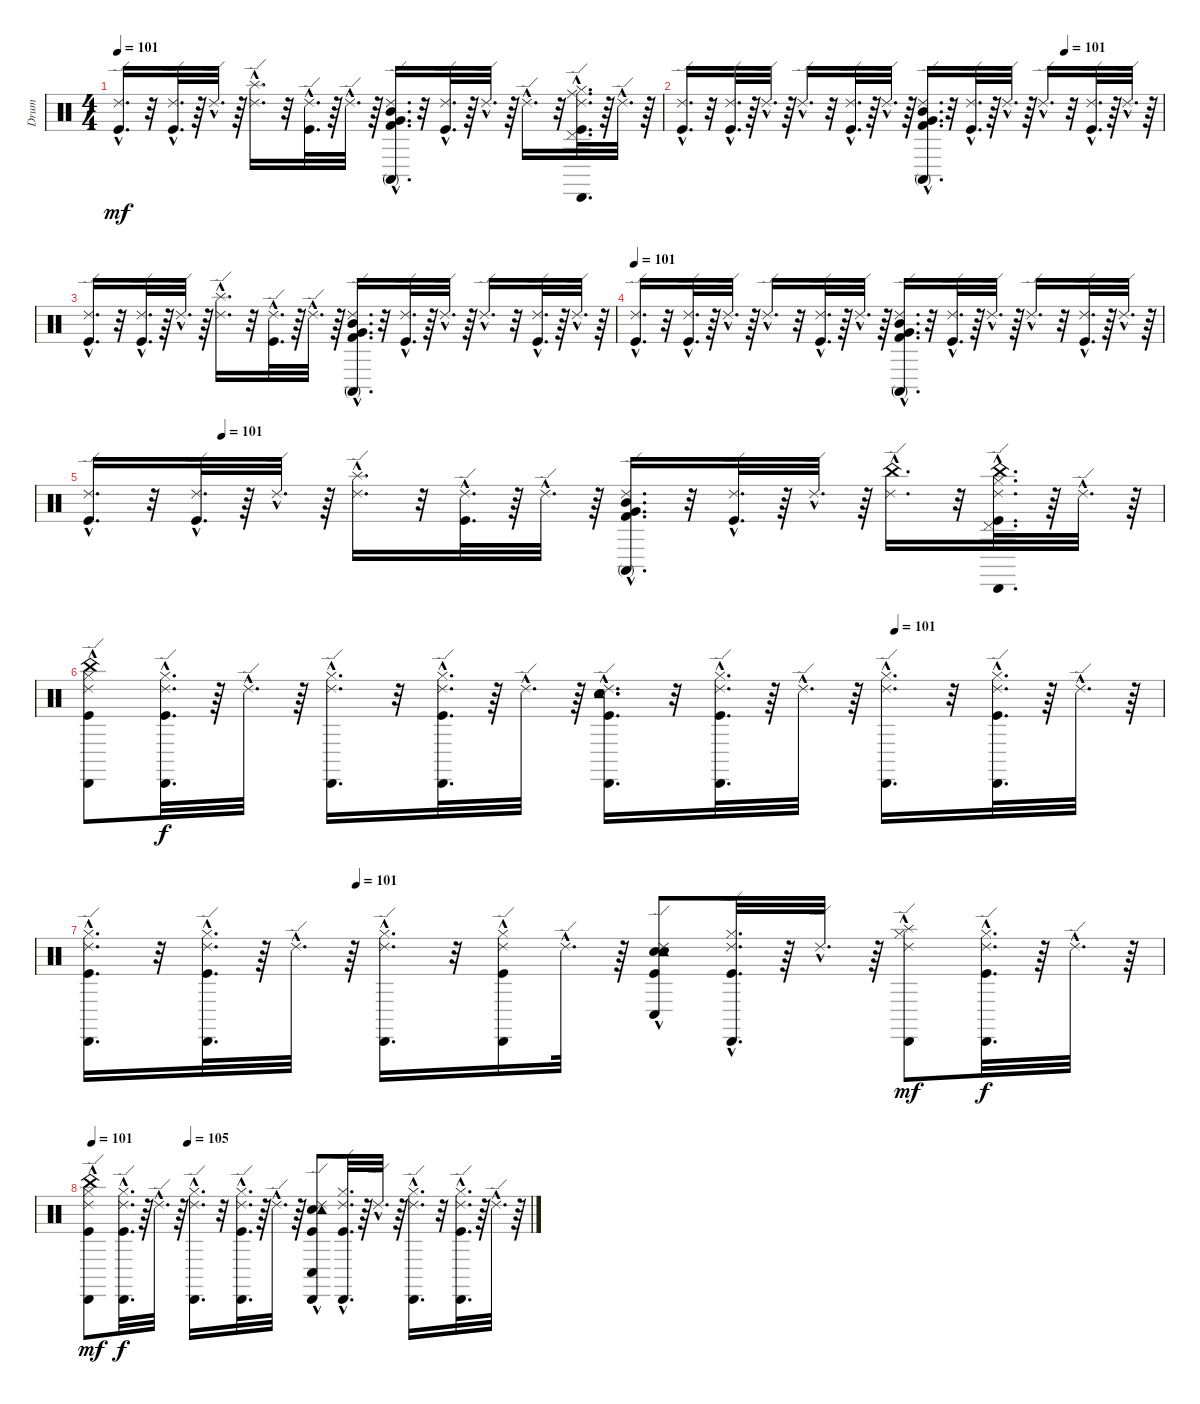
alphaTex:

\track ("Drum" "Drum") {instrument percussion}
\staff {score}
\articulation defaults
\ts (4 4)
\tempo 101
\clef neutral
\ks c
("Ride (edge) 2"{hac} "Kick (hit)"{hac}).16{d dy mf} r.32 ("Ride (edge) 2"{hac} "Kick (hit)"{hac}).32{d} r.64 "Ride (edge) 2"{hac}.32{d} r.64 ("Ride (edge) 2"{hac} "Splash (hit)"{hac}).16{d} r.32 ("Kick (hit)"{hac} "Ride (edge) 2"{hac}).32{d} r.64 "Ride (edge) 2"{hac}.32{d} r.64 ("Ride (edge) 2"{hac} "Kick (hit) 2"{hac} "Very Low Tom (hit)"{hac} "Mid Tom (hit)"{hac} "Conga high (mute)"{hac}).16{d} r.32 ("Ride (edge) 2"{hac} "Kick (hit)"{hac}).32{d} r.64 "Ride (edge) 2"{hac}.32{d} r.64 "Ride (edge) 2"{hac}.16{d} r.32 ("Cabasa (hit)"{hac} "Hi-Hat (closed)"{hac} "Pedal Hi-Hat (hit)"{hac} "Ride (middle)"{hac} "Ride (edge) 2"{hac} "Kick (hit)"{hac}).32{d} r.64 "Ride (edge) 2"{hac}.32{d} r.64 |
\tempo (101 0.796875)
("Kick (hit)"{hac} "Ride (edge) 2"{hac}).16{d} r.32 ("Kick (hit)"{hac} "Ride (edge) 2"{hac}).32{d} r.64 "Ride (edge) 2"{hac}.32{d} r.64 "Ride (edge) 2"{hac}.16{d} r.32 ("Ride (edge) 2"{hac} "Kick (hit)"{hac}).32{d} r.64 "Ride (edge) 2"{hac}.32{d} r.64 ("Conga high (mute)"{hac} "Mid Tom (hit)"{hac} "Very Low Tom (hit)"{hac} "Kick (hit) 2"{hac} "Ride (edge) 2"{hac}).16{d} r.32 ("Kick (hit)"{hac} "Ride (edge) 2"{hac}).32{d} r.64 "Ride (edge) 2"{hac}.32{d} r.64 "Ride (edge) 2"{hac}.16{d} r.32 ("Kick (hit)"{hac} "Ride (edge) 2"{hac}).32{d} r.64 "Ride (edge) 2"{hac}.32{d} r.64 |
("Ride (edge) 2"{hac} "Kick (hit)"{hac}).16{d} r.32 ("Ride (edge) 2"{hac} "Kick (hit)"{hac}).32{d} r.64 "Ride (edge) 2"{hac}.32{d} r.64 ("Splash (hit)"{hac} "Ride (edge) 2"{hac}).16{d} r.32 ("Kick (hit)"{hac} "Ride (edge) 2"{hac}).32{d} r.64 "Ride (edge) 2"{hac}.32{d} r.64 ("Ride (edge) 2"{hac} "Kick (hit) 2"{hac} "Very Low Tom (hit)"{hac} "Mid Tom (hit)"{hac} "Conga high (mute)"{hac}).16{d} r.32 ("Ride (edge) 2"{hac} "Kick (hit)"{hac}).32{d} r.64 "Ride (edge) 2"{hac}.32{d} r.64 "Ride (edge) 2"{hac}.16{d} r.32 ("Ride (edge) 2"{hac} "Kick (hit)"{hac}).32{d} r.64 "Ride (edge) 2"{hac}.32{d} r.64 |
\tempo 101
("Ride (edge) 2"{hac} "Kick (hit)"{hac}).16{d} r.32 ("Ride (edge) 2"{hac} "Kick (hit)"{hac}).32{d} r.64 "Ride (edge) 2"{hac}.32{d} r.64 "Ride (edge) 2"{hac}.16{d} r.32 ("Kick (hit)"{hac} "Ride (edge) 2"{hac}).32{d} r.64 "Ride (edge) 2"{hac}.32{d} r.64 ("Ride (edge) 2"{hac} "Kick (hit) 2"{hac} "Very Low Tom (hit)"{hac} "Mid Tom (hit)"{hac} "Conga high (mute)"{hac}).16{d} r.32 ("Ride (edge) 2"{hac} "Kick (hit)"{hac}).32{d} r.64 "Ride (edge) 2"{hac}.32{d} r.64 "Ride (edge) 2"{hac}.16{d} r.32 ("Ride (edge) 2"{hac} "Kick (hit)"{hac}).32{d} r.64 "Ride (edge) 2"{hac}.32{d} r.64 |
\tempo (101 0.125)
("Ride (edge) 2"{hac} "Kick (hit)"{hac}).16{d} r.32 ("Ride (edge) 2"{hac} "Kick (hit)"{hac}).32{d} r.64 "Ride (edge) 2"{hac}.32{d} r.64 ("Ride (edge) 2"{hac} "Splash (hit)"{hac}).16{d} r.32 ("Kick (hit)"{hac} "Ride (edge) 2"{hac}).32{d} r.64 "Ride (edge) 2"{hac}.32{d} r.64 ("Ride (edge) 2"{hac} "Kick (hit) 2"{hac} "Very Low Tom (hit)"{hac} "Mid Tom (hit)"{hac} "Conga high (mute)"{hac}).16{d} r.32 ("Ride (edge) 2"{hac} "Kick (hit)"{hac}).32{d} r.64 "Ride (edge) 2"{hac}.32{d} r.64 ("China (hit)"{hac} "Ride (edge) 2"{hac}).16{d} r.32 ("Cabasa (hit)"{hac} "Hi-Hat (closed)"{hac} "Pedal Hi-Hat (hit)"{hac} "China (hit)"{hac} "Ride (edge) 2"{hac} "Kick (hit)"{hac}).32{d} r.64 "Ride (edge) 2"{hac}.32{d} r.64 |
\tempo (101 0.75)
("China (hit)"{hac} "Hi-Hat (closed)"{hac} "Cabasa (hit)"{hac} "Kick (hit)"{hac} "Ride (edge) 2"{hac}).8 ("Hi-Hat (closed)"{hac} "Cabasa (hit)"{hac} "Kick (hit)"{hac} "Ride (edge) 2"{hac}).32{d dy f} r.64 "Ride (edge) 2"{hac}.32{d} r.64 ("Hi-Hat (closed)"{hac} "Cabasa (hit)"{hac} "Ride (edge) 2"{hac}).16{d} r.32 ("Hi-Hat (closed)"{hac} "Cabasa (hit)"{hac} "Kick (hit)"{hac} "Ride (edge) 2"{hac}).32{d} r.64 "Ride (edge) 2"{hac}.32{d} r.64 ("Cabasa (hit)"{hac} "Tambourine (hit)"{hac} "Ride (edge) 2"{hac} "Electric Snare (hit)"{hac} "Snare (hit) 2"{hac} "Kick (hit)"{hac}).16{d} r.32 ("Hi-Hat (closed)"{hac} "Cabasa (hit)"{hac} "Kick (hit)"{hac} "Ride (edge) 2"{hac}).32{d} r.64 "Ride (edge) 2"{hac}.32{d} r.64 ("Hi-Hat (closed)"{hac} "Cabasa (hit)"{hac} "Ride (edge) 2"{hac}).16{d} r.32 ("Hi-Hat (closed)"{hac} "Cabasa (hit)"{hac} "Ride (edge) 2"{hac} "Kick (hit)"{hac}).32{d} r.64 "Ride (edge) 2"{hac}.32{d} r.64 |
\tempo (101 0.25)
("Hi-Hat (closed)"{hac} "Ride (edge) 2"{hac} "Kick (hit)"{hac} "Cabasa (hit)"{hac}).16{d} r.32 ("Hi-Hat (closed)"{hac} "Ride (edge) 2"{hac} "Kick (hit)"{hac} "Cabasa (hit)"{hac}).32{d} r.64 "Ride (edge) 2"{hac}.32{d} r.64 ("Hi-Hat (closed)"{hac} "Ride (edge) 2"{hac} "Cabasa (hit)"{hac}).16{d} r.32 ("Hi-Hat (closed)"{hac} "Ride (edge) 2"{hac} "Kick (hit)"{hac} "Cabasa (hit)"{hac}).16 "Ride (edge) 2"{hac}.32{d} r.64 ("Conga low (hit)"{hac} "Kick (hit)"{hac} "Snare (hit) 2" "Electric Snare (hit)"{hac} "Ride (edge) 2"{hac} "Tambourine (hit)"{hac}).8 ("Hi-Hat (closed)"{hac} "Ride (edge) 2"{hac} "Kick (hit)"{hac} "Cabasa (hit)"{hac}).32{d} r.64 "Ride (edge) 2"{hac}.32{d} r.64 ("Splash (hit)"{hac} "Hi-Hat (closed)"{hac} "Ride (edge) 2"{hac} "Cabasa (hit)"{hac}).8{dy mf} ("Hi-Hat (closed)"{hac} "Kick (hit)"{hac} "Ride (edge) 2"{hac} "Cabasa (hit)"{hac}).32{d dy f} r.64 "Ride (edge) 2"{hac}.32{d} r.64 |
\tempo 101
\tempo (105 0.21875)
("China (hit)"{hac} "Cabasa (hit)"{hac} "Ride (edge) 2"{hac} "Kick (hit)"{hac} "Hi-Hat (closed)"{hac}).8{dy mf} ("Hi-Hat (closed)"{hac} "Kick (hit)"{hac} "Cabasa (hit)"{hac} "Ride (edge) 2"{hac}).32{d dy f} r.64 "Ride (edge) 2"{hac}.32{d} r.64 ("Ride (edge) 2"{hac} "Hi-Hat (closed)"{hac} "Cabasa (hit)"{hac}).16{d} r.32 ("Ride (edge) 2"{hac} "Hi-Hat (closed)"{hac} "Cabasa (hit)"{hac} "Kick (hit)"{hac}).32{d} r.64 "Ride (edge) 2"{hac}.32{d} r.64 ("Kick (hit)"{hac} "Conga low (hit)" "Cabasa (hit)"{hac} "Electric Snare (hit)"{hac} "Ride (edge) 2"{hac} "Tambourine (hit)"{hac}).8 ("Hi-Hat (closed)"{hac} "Ride (edge) 2"{hac} "Cabasa (hit)"{hac} "Kick (hit)"{hac}).32{d} r.64 "Ride (edge) 2"{hac}.32{d} r.64 ("Hi-Hat (closed)"{hac} "Cabasa (hit)"{hac} "Ride (edge) 2"{hac}).16{d} r.32 ("Kick (hit)"{hac} "Ride (edge) 2"{hac} "Cabasa (hit)"{hac} "Hi-Hat (closed)"{hac}).32{d} r.64 "Ride (edge) 2"{hac}.32{d} r.64
